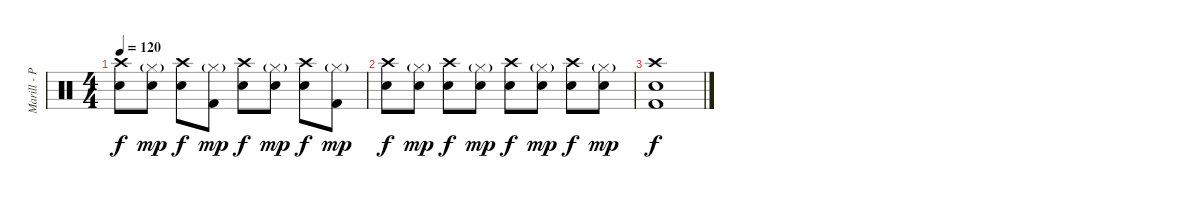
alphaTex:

\track ("Marill - Percussion" "Marill - P") {instrument percussion}
\staff {score}
\articulation defaults
\ts (4 4)
\tempo 120
\clef neutral
\ks c
("Crash high (hit)" "Snare (hit) 2").8{dy f} ("Hi-Hat (closed)"{g} "Snare (hit) 2").8{dy mp} ("Crash high (hit)" "Snare (hit) 2").8{dy f} ("Hi-Hat (closed)"{g} "Kick (hit) 2").8{dy mp} ("Crash high (hit)" "Snare (hit) 2").8{dy f} ("Hi-Hat (closed)"{g} "Snare (hit) 2").8{dy mp} ("Crash high (hit)" "Snare (hit) 2").8{dy f} ("Hi-Hat (closed)"{g} "Kick (hit) 2").8{dy mp} |
("Crash high (hit)" "Snare (hit) 2").8{dy f} ("Hi-Hat (closed)"{g} "Snare (hit) 2").8{dy mp} ("Crash high (hit)" "Snare (hit) 2").8{dy f} ("Hi-Hat (closed)"{g} "Snare (hit) 2").8{dy mp} ("Crash high (hit)" "Snare (hit) 2").8{dy f} ("Hi-Hat (closed)"{g} "Snare (hit) 2").8{dy mp} ("Crash high (hit)" "Snare (hit) 2").8{dy f} ("Hi-Hat (closed)"{g} "Snare (hit) 2").8{dy mp} |
("Crash high (hit)" "Kick (hit) 2" "Snare (hit) 2").1{dy f}
